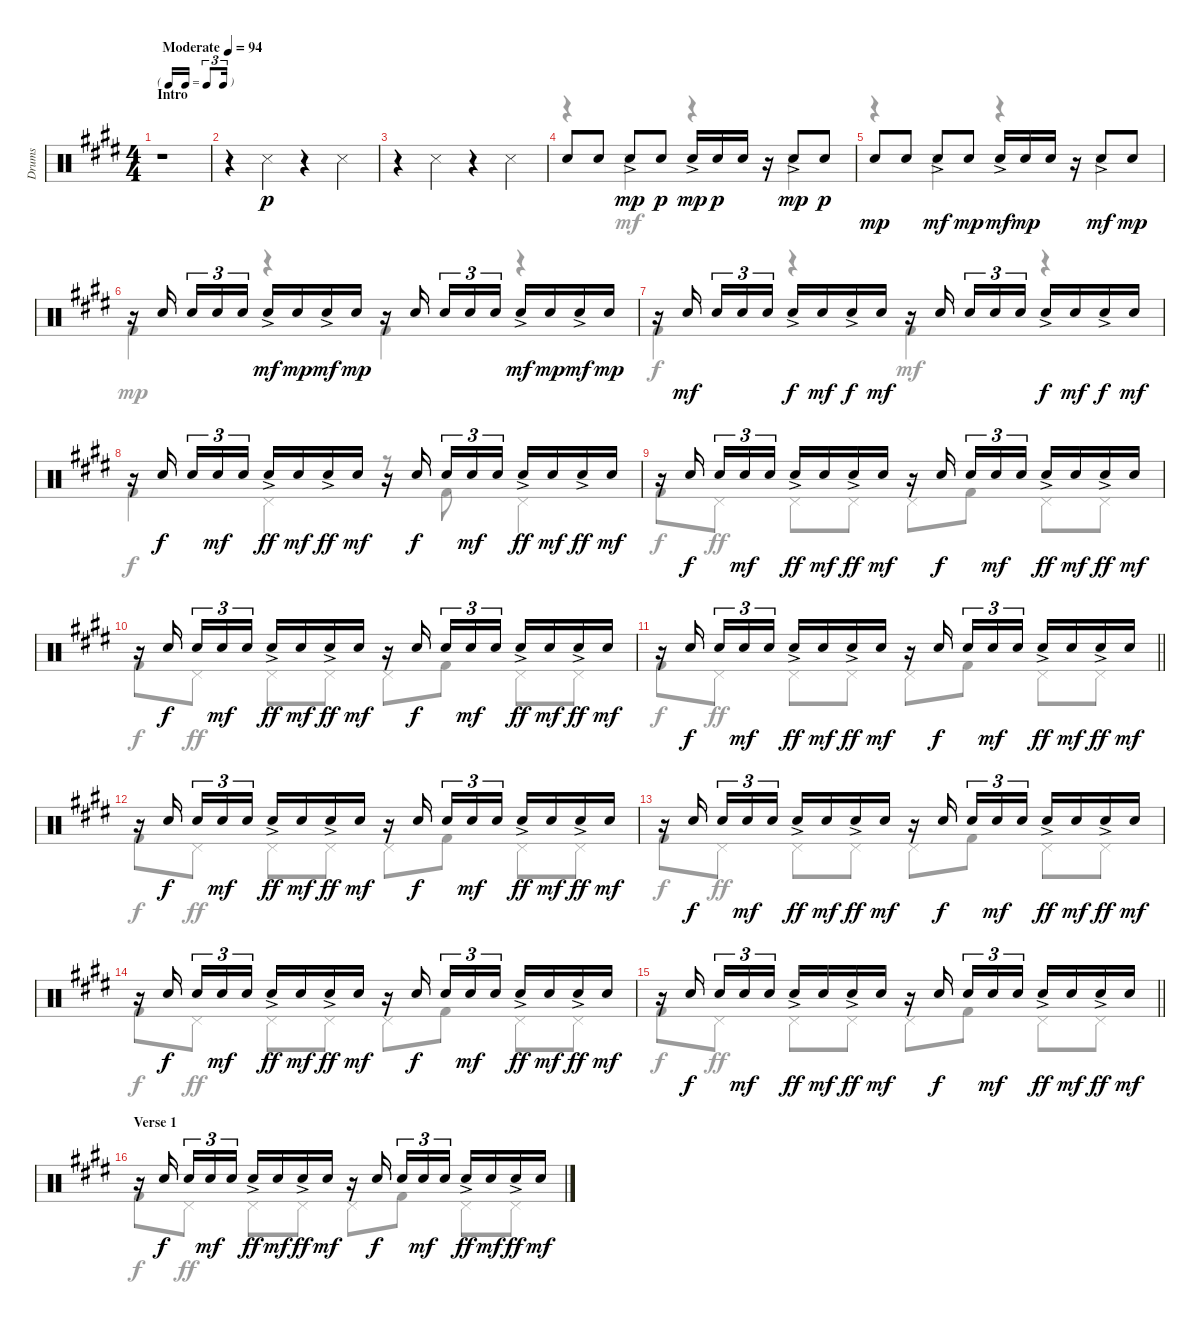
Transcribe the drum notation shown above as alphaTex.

\track ("Drums" "Drums") {instrument percussion}
\staff {score}
\articulation defaults
\voice
\ts (4 4)
\tf triplet16th
\section ("" "Intro")
\tempo (94 "Moderate")
\clef neutral
\ks e
r.1{dy p} |
r.4 "Snare (side stick) 3".4 r.4 "Snare (side stick) 3".4 |
r.4 "Snare (side stick) 3".4 r.4 "Snare (side stick) 3".4 |
"Electric Snare (hit)".8 "Electric Snare (hit)".8 "Electric Snare (hit)"{ac}.8{dy mp} "Electric Snare (hit)".8{dy p} "Electric Snare (hit)"{ac}.16{dy mp} "Electric Snare (hit)".16{dy p} "Electric Snare (hit)".16 r.16 "Electric Snare (hit)"{ac}.8{dy mp} "Electric Snare (hit)".8{dy p} |
"Electric Snare (hit)".8{dy mp} "Electric Snare (hit)".8 "Electric Snare (hit)"{ac}.8{dy mf} "Electric Snare (hit)".8{dy mp} "Electric Snare (hit)"{ac}.16{dy mf} "Electric Snare (hit)".16{dy mp} "Electric Snare (hit)".16 r.16 "Electric Snare (hit)"{ac}.8{dy mf} "Electric Snare (hit)".8{dy mp} |
r.16 "Electric Snare (hit)".16{beam splitsecondary} "Electric Snare (hit)".16{tu (3 2)} "Electric Snare (hit)".16{tu (3 2)} "Electric Snare (hit)".16{tu (3 2)} "Electric Snare (hit)"{ac}.16{dy mf} "Electric Snare (hit)".16{dy mp} "Electric Snare (hit)"{ac}.16{dy mf} "Electric Snare (hit)".16{dy mp} r.16 "Electric Snare (hit)".16{beam splitsecondary} "Electric Snare (hit)".16{tu (3 2)} "Electric Snare (hit)".16{tu (3 2)} "Electric Snare (hit)".16{tu (3 2)} "Electric Snare (hit)"{ac}.16{dy mf} "Electric Snare (hit)".16{dy mp} "Electric Snare (hit)"{ac}.16{dy mf} "Electric Snare (hit)".16{dy mp} |
r.16 "Snare (hit) 2".16{dy mf beam splitsecondary} "Snare (hit) 2".16{tu (3 2)} "Snare (hit) 2".16{tu (3 2)} "Snare (hit) 2".16{tu (3 2)} "Snare (hit) 2"{ac}.16{dy f} "Snare (hit) 2".16{dy mf} "Snare (hit) 2"{ac}.16{dy f} "Snare (hit) 2".16{dy mf} r.16 "Snare (hit) 2".16{beam splitsecondary} "Snare (hit) 2".16{tu (3 2)} "Snare (hit) 2".16{tu (3 2)} "Snare (hit) 2".16{tu (3 2)} "Snare (hit) 2"{ac}.16{dy f} "Snare (hit) 2".16{dy mf} "Snare (hit) 2"{ac}.16{dy f} "Snare (hit) 2".16{dy mf} |
r.16 "Snare (hit) 2".16{dy f beam splitsecondary} "Snare (hit) 2".16{tu (3 2)} "Snare (hit) 2".16{tu (3 2) dy mf} "Snare (hit) 2".16{tu (3 2)} "Snare (hit) 2"{ac}.16{dy ff} "Snare (hit) 2".16{dy mf} "Snare (hit) 2"{ac}.16{dy ff} "Snare (hit) 2".16{dy mf} r.16 "Snare (hit) 2".16{dy f beam splitsecondary} "Snare (hit) 2".16{tu (3 2)} "Snare (hit) 2".16{tu (3 2) dy mf} "Snare (hit) 2".16{tu (3 2)} "Snare (hit) 2"{ac}.16{dy ff} "Snare (hit) 2".16{dy mf} "Snare (hit) 2"{ac}.16{dy ff} "Snare (hit) 2".16{dy mf} |
r.16 "Snare (hit) 2".16{dy f beam splitsecondary} "Snare (hit) 2".16{tu (3 2)} "Snare (hit) 2".16{tu (3 2) dy mf} "Snare (hit) 2".16{tu (3 2)} "Snare (hit) 2"{ac}.16{dy ff} "Snare (hit) 2".16{dy mf} "Snare (hit) 2"{ac}.16{dy ff} "Snare (hit) 2".16{dy mf} r.16 "Snare (hit) 2".16{dy f beam splitsecondary} "Snare (hit) 2".16{tu (3 2)} "Snare (hit) 2".16{tu (3 2) dy mf} "Snare (hit) 2".16{tu (3 2)} "Snare (hit) 2"{ac}.16{dy ff} "Snare (hit) 2".16{dy mf} "Snare (hit) 2"{ac}.16{dy ff} "Snare (hit) 2".16{dy mf} |
r.16 "Snare (hit) 2".16{dy f beam splitsecondary} "Snare (hit) 2".16{tu (3 2)} "Snare (hit) 2".16{tu (3 2) dy mf} "Snare (hit) 2".16{tu (3 2)} "Snare (hit) 2"{ac}.16{dy ff} "Snare (hit) 2".16{dy mf} "Snare (hit) 2"{ac}.16{dy ff} "Snare (hit) 2".16{dy mf} r.16 "Snare (hit) 2".16{dy f beam splitsecondary} "Snare (hit) 2".16{tu (3 2)} "Snare (hit) 2".16{tu (3 2) dy mf} "Snare (hit) 2".16{tu (3 2)} "Snare (hit) 2"{ac}.16{dy ff} "Snare (hit) 2".16{dy mf} "Snare (hit) 2"{ac}.16{dy ff} "Snare (hit) 2".16{dy mf} |
\barLineRight lightlight
r.16 "Snare (hit) 2".16{dy f beam splitsecondary} "Snare (hit) 2".16{tu (3 2)} "Snare (hit) 2".16{tu (3 2) dy mf} "Snare (hit) 2".16{tu (3 2)} "Snare (hit) 2"{ac}.16{dy ff} "Snare (hit) 2".16{dy mf} "Snare (hit) 2"{ac}.16{dy ff} "Snare (hit) 2".16{dy mf} r.16 "Snare (hit) 2".16{dy f beam splitsecondary} "Snare (hit) 2".16{tu (3 2)} "Snare (hit) 2".16{tu (3 2) dy mf} "Snare (hit) 2".16{tu (3 2)} "Snare (hit) 2"{ac}.16{dy ff} "Snare (hit) 2".16{dy mf} "Snare (hit) 2"{ac}.16{dy ff} "Snare (hit) 2".16{dy mf} |
r.16 "Snare (hit) 2".16{dy f beam splitsecondary} "Snare (hit) 2".16{tu (3 2)} "Snare (hit) 2".16{tu (3 2) dy mf} "Snare (hit) 2".16{tu (3 2)} "Snare (hit) 2"{ac}.16{dy ff} "Snare (hit) 2".16{dy mf} "Snare (hit) 2"{ac}.16{dy ff} "Snare (hit) 2".16{dy mf} r.16 "Snare (hit) 2".16{dy f beam splitsecondary} "Snare (hit) 2".16{tu (3 2)} "Snare (hit) 2".16{tu (3 2) dy mf} "Snare (hit) 2".16{tu (3 2)} "Snare (hit) 2"{ac}.16{dy ff} "Snare (hit) 2".16{dy mf} "Snare (hit) 2"{ac}.16{dy ff} "Snare (hit) 2".16{dy mf} |
r.16 "Snare (hit) 2".16{dy f beam splitsecondary} "Snare (hit) 2".16{tu (3 2)} "Snare (hit) 2".16{tu (3 2) dy mf} "Snare (hit) 2".16{tu (3 2)} "Snare (hit) 2"{ac}.16{dy ff} "Snare (hit) 2".16{dy mf} "Snare (hit) 2"{ac}.16{dy ff} "Snare (hit) 2".16{dy mf} r.16 "Snare (hit) 2".16{dy f beam splitsecondary} "Snare (hit) 2".16{tu (3 2)} "Snare (hit) 2".16{tu (3 2) dy mf} "Snare (hit) 2".16{tu (3 2)} "Snare (hit) 2"{ac}.16{dy ff} "Snare (hit) 2".16{dy mf} "Snare (hit) 2"{ac}.16{dy ff} "Snare (hit) 2".16{dy mf} |
r.16 "Snare (hit) 2".16{dy f beam splitsecondary} "Snare (hit) 2".16{tu (3 2)} "Snare (hit) 2".16{tu (3 2) dy mf} "Snare (hit) 2".16{tu (3 2)} "Snare (hit) 2"{ac}.16{dy ff} "Snare (hit) 2".16{dy mf} "Snare (hit) 2"{ac}.16{dy ff} "Snare (hit) 2".16{dy mf} r.16 "Snare (hit) 2".16{dy f beam splitsecondary} "Snare (hit) 2".16{tu (3 2)} "Snare (hit) 2".16{tu (3 2) dy mf} "Snare (hit) 2".16{tu (3 2)} "Snare (hit) 2"{ac}.16{dy ff} "Snare (hit) 2".16{dy mf} "Snare (hit) 2"{ac}.16{dy ff} "Snare (hit) 2".16{dy mf} |
\barLineRight lightlight
r.16 "Snare (hit) 2".16{dy f beam splitsecondary} "Snare (hit) 2".16{tu (3 2)} "Snare (hit) 2".16{tu (3 2) dy mf} "Snare (hit) 2".16{tu (3 2)} "Snare (hit) 2"{ac}.16{dy ff} "Snare (hit) 2".16{dy mf} "Snare (hit) 2"{ac}.16{dy ff} "Snare (hit) 2".16{dy mf} r.16 "Snare (hit) 2".16{dy f beam splitsecondary} "Snare (hit) 2".16{tu (3 2)} "Snare (hit) 2".16{tu (3 2) dy mf} "Snare (hit) 2".16{tu (3 2)} "Snare (hit) 2"{ac}.16{dy ff} "Snare (hit) 2".16{dy mf} "Snare (hit) 2"{ac}.16{dy ff} "Snare (hit) 2".16{dy mf} |
\section ("" "Verse 1")
r.16 "Snare (hit) 2".16{dy f beam splitsecondary} "Snare (hit) 2".16{tu (3 2)} "Snare (hit) 2".16{tu (3 2) dy mf} "Snare (hit) 2".16{tu (3 2)} "Snare (hit) 2"{ac}.16{dy ff} "Snare (hit) 2".16{dy mf} "Snare (hit) 2"{ac}.16{dy ff} "Snare (hit) 2".16{dy mf} r.16 "Snare (hit) 2".16{dy f beam splitsecondary} "Snare (hit) 2".16{tu (3 2)} "Snare (hit) 2".16{tu (3 2) dy mf} "Snare (hit) 2".16{tu (3 2)} "Snare (hit) 2"{ac}.16{dy ff} "Snare (hit) 2".16{dy mf} "Snare (hit) 2"{ac}.16{dy ff} "Snare (hit) 2".16{dy mf}
\voice
\clef neutral
\ottava regular
\simile none
\ks e
|
|
|
r.4 "Snare (side stick) 3".4 r.4 "Snare (side stick) 3".4 |
r.4 "Snare (side stick) 3".4 r.4 "Snare (side stick) 3".4 |
"Kick (hit) 2".4{dy mp} r.4 "Kick (hit) 2".4 r.4 |
"Kick (hit) 2".4{dy f} r.4 "Kick (hit) 2".4{dy mf} r.4 |
"Kick (hit) 2".4{dy f} "Pedal Hi-Hat (hit)".4{dy ff} r.8 "Kick (hit) 2".8 "Pedal Hi-Hat (hit)".4 |
"Kick (hit) 2".8{dy f} "Pedal Hi-Hat (hit)".8{dy ff} "Pedal Hi-Hat (hit)".8 "Pedal Hi-Hat (hit)".8 "Pedal Hi-Hat (hit)".8 "Kick (hit) 2".8 "Pedal Hi-Hat (hit)".8 "Pedal Hi-Hat (hit)".8 |
"Kick (hit) 2".8{dy f} "Pedal Hi-Hat (hit)".8{dy ff} "Pedal Hi-Hat (hit)".8 "Pedal Hi-Hat (hit)".8 "Pedal Hi-Hat (hit)".8 "Kick (hit) 2".8 "Pedal Hi-Hat (hit)".8 "Pedal Hi-Hat (hit)".8 |
\barLineRight lightlight "Kick (hit) 2".8{dy f} "Pedal Hi-Hat (hit)".8{dy ff} "Pedal Hi-Hat (hit)".8 "Pedal Hi-Hat (hit)".8 "Pedal Hi-Hat (hit)".8 "Kick (hit) 2".8 "Pedal Hi-Hat (hit)".8 "Pedal Hi-Hat (hit)".8
|
"Kick (hit) 2".8{dy f} "Pedal Hi-Hat (hit)".8{dy ff} "Pedal Hi-Hat (hit)".8 "Pedal Hi-Hat (hit)".8 "Pedal Hi-Hat (hit)".8 "Kick (hit) 2".8 "Pedal Hi-Hat (hit)".8 "Pedal Hi-Hat (hit)".8 |
"Kick (hit) 2".8{dy f} "Pedal Hi-Hat (hit)".8{dy ff} "Pedal Hi-Hat (hit)".8 "Pedal Hi-Hat (hit)".8 "Pedal Hi-Hat (hit)".8 "Kick (hit) 2".8 "Pedal Hi-Hat (hit)".8 "Pedal Hi-Hat (hit)".8 |
"Kick (hit) 2".8{dy f} "Pedal Hi-Hat (hit)".8{dy ff} "Pedal Hi-Hat (hit)".8 "Pedal Hi-Hat (hit)".8 "Pedal Hi-Hat (hit)".8 "Kick (hit) 2".8 "Pedal Hi-Hat (hit)".8 "Pedal Hi-Hat (hit)".8 |
\barLineRight lightlight "Kick (hit) 2".8{dy f} "Pedal Hi-Hat (hit)".8{dy ff} "Pedal Hi-Hat (hit)".8 "Pedal Hi-Hat (hit)".8 "Pedal Hi-Hat (hit)".8 "Kick (hit) 2".8 "Pedal Hi-Hat (hit)".8 "Pedal Hi-Hat (hit)".8
|
"Kick (hit) 2".8{dy f} "Pedal Hi-Hat (hit)".8{dy ff} "Pedal Hi-Hat (hit)".8 "Pedal Hi-Hat (hit)".8 "Pedal Hi-Hat (hit)".8 "Kick (hit) 2".8 "Pedal Hi-Hat (hit)".8 "Pedal Hi-Hat (hit)".8
